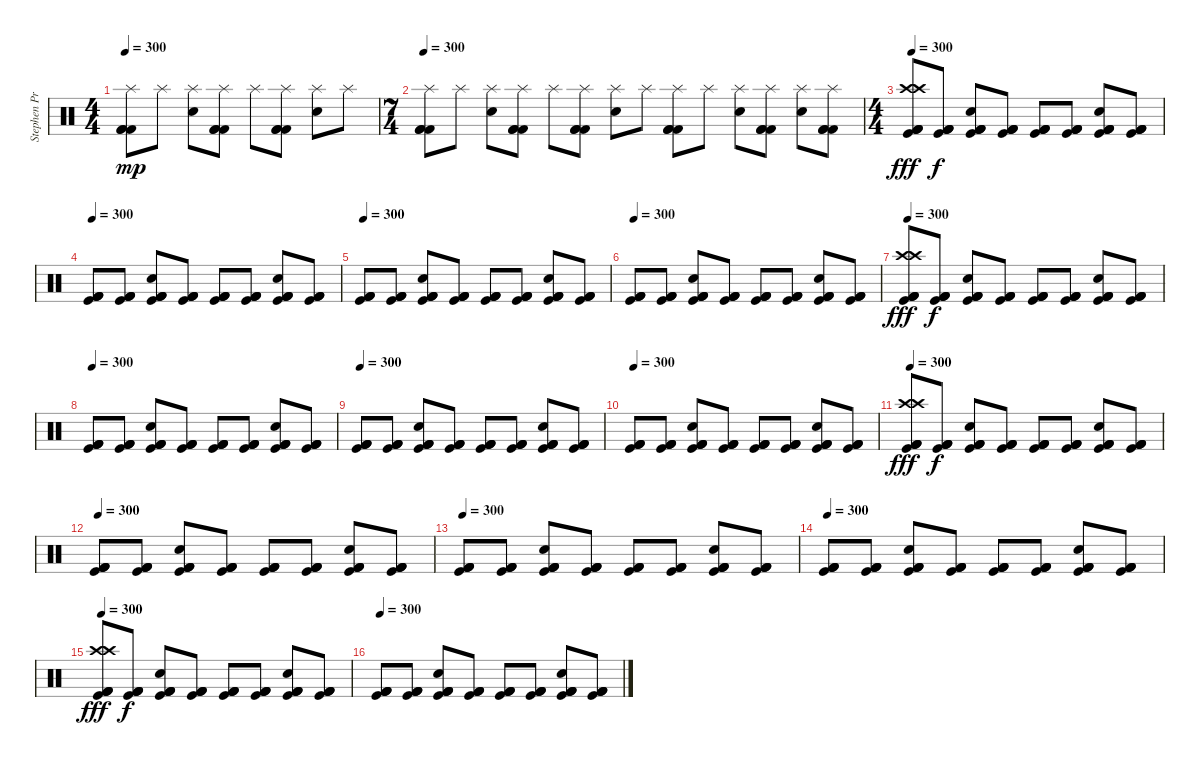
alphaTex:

\track ("Stephen Priestly  (Drums)" "Stephen Pr") {instrument percussion}
\staff {score}
\articulation defaults
\ts (4 4)
\tempo 300
\clef neutral
\ks c
("Splash (hit)" "Kick (hit) 2" "Kick (hit) 2" "Kick (hit) 2").8{dy mp} "Splash (hit)".8 ("Splash (hit)" "Electric Snare (hit)").8 ("Splash (hit)" "Kick (hit) 2" "Kick (hit) 2" "Kick (hit) 2").8 "Splash (hit)".8 ("Splash (hit)" "Kick (hit) 2" "Kick (hit) 2" "Kick (hit) 2").8 ("Splash (hit)" "Electric Snare (hit)").8 "Splash (hit)".8 |
\ts (7 4)
\tempo 300
("Splash (hit)" "Kick (hit) 2" "Kick (hit) 2" "Kick (hit) 2").8 "Splash (hit)".8 ("Splash (hit)" "Electric Snare (hit)").8 ("Splash (hit)" "Kick (hit) 2" "Kick (hit) 2" "Kick (hit) 2").8 "Splash (hit)".8 ("Splash (hit)" "Kick (hit) 2" "Kick (hit) 2" "Kick (hit) 2").8 ("Splash (hit)" "Electric Snare (hit)").8 "Splash (hit)".8 ("Splash (hit)" "Kick (hit) 2" "Kick (hit) 2" "Kick (hit) 2").8 "Splash (hit)".8 ("Splash (hit)" "Electric Snare (hit)").8 ("Splash (hit)" "Kick (hit) 2" "Kick (hit) 2" "Kick (hit) 2").8 ("Splash (hit)" "Electric Snare (hit)").8 ("Splash (hit)" "Kick (hit) 2" "Kick (hit) 2" "Kick (hit) 2").8 |
\ts (4 4)
\tempo 300
("Crash high (hit)" "Crash high (hit)" "Kick (hit)" "Kick (hit) 2" "Kick (hit) 2" "Kick (hit) 2").8{dy fff} ("Kick (hit)" "Kick (hit) 2" "Kick (hit) 2" "Kick (hit) 2").8{dy f} ("Electric Snare (hit)" "Kick (hit)" "Kick (hit) 2" "Kick (hit) 2" "Kick (hit) 2").8 ("Kick (hit)" "Kick (hit) 2" "Kick (hit) 2" "Kick (hit) 2").8 ("Kick (hit)" "Kick (hit) 2" "Kick (hit) 2" "Kick (hit) 2").8 ("Kick (hit)" "Kick (hit) 2" "Kick (hit) 2" "Kick (hit) 2").8 ("Electric Snare (hit)" "Kick (hit)" "Kick (hit) 2" "Kick (hit) 2" "Kick (hit) 2").8 ("Kick (hit)" "Kick (hit) 2" "Kick (hit) 2" "Kick (hit) 2").8 |
\tempo 300
("Kick (hit)" "Kick (hit) 2" "Kick (hit) 2" "Kick (hit) 2").8 ("Kick (hit)" "Kick (hit) 2" "Kick (hit) 2" "Kick (hit) 2").8 ("Electric Snare (hit)" "Kick (hit)" "Kick (hit) 2" "Kick (hit) 2" "Kick (hit) 2").8 ("Kick (hit)" "Kick (hit) 2" "Kick (hit) 2" "Kick (hit) 2").8 ("Kick (hit)" "Kick (hit) 2" "Kick (hit) 2" "Kick (hit) 2").8 ("Kick (hit)" "Kick (hit) 2" "Kick (hit) 2" "Kick (hit) 2").8 ("Electric Snare (hit)" "Kick (hit)" "Kick (hit) 2" "Kick (hit) 2" "Kick (hit) 2").8 ("Kick (hit)" "Kick (hit) 2" "Kick (hit) 2" "Kick (hit) 2").8 |
\tempo 300
("Kick (hit)" "Kick (hit) 2" "Kick (hit) 2" "Kick (hit) 2").8 ("Kick (hit)" "Kick (hit) 2" "Kick (hit) 2" "Kick (hit) 2").8 ("Electric Snare (hit)" "Kick (hit)" "Kick (hit) 2" "Kick (hit) 2" "Kick (hit) 2").8 ("Kick (hit)" "Kick (hit) 2" "Kick (hit) 2" "Kick (hit) 2").8 ("Kick (hit)" "Kick (hit) 2" "Kick (hit) 2" "Kick (hit) 2").8 ("Kick (hit)" "Kick (hit) 2" "Kick (hit) 2" "Kick (hit) 2").8 ("Electric Snare (hit)" "Kick (hit)" "Kick (hit) 2" "Kick (hit) 2" "Kick (hit) 2").8 ("Kick (hit)" "Kick (hit) 2" "Kick (hit) 2" "Kick (hit) 2").8 |
\tempo 300
("Kick (hit)" "Kick (hit) 2" "Kick (hit) 2" "Kick (hit) 2").8 ("Kick (hit)" "Kick (hit) 2" "Kick (hit) 2" "Kick (hit) 2").8 ("Electric Snare (hit)" "Kick (hit)" "Kick (hit) 2" "Kick (hit) 2" "Kick (hit) 2").8 ("Kick (hit)" "Kick (hit) 2" "Kick (hit) 2" "Kick (hit) 2").8 ("Kick (hit)" "Kick (hit) 2" "Kick (hit) 2" "Kick (hit) 2").8 ("Kick (hit)" "Kick (hit) 2" "Kick (hit) 2" "Kick (hit) 2").8 ("Electric Snare (hit)" "Kick (hit)" "Kick (hit) 2" "Kick (hit) 2" "Kick (hit) 2").8 ("Kick (hit)" "Kick (hit) 2" "Kick (hit) 2" "Kick (hit) 2").8 |
\tempo 300
("Crash high (hit)" "Crash high (hit)" "Kick (hit)" "Kick (hit) 2" "Kick (hit) 2" "Kick (hit) 2").8{dy fff} ("Kick (hit)" "Kick (hit) 2" "Kick (hit) 2" "Kick (hit) 2").8{dy f} ("Electric Snare (hit)" "Kick (hit)" "Kick (hit) 2" "Kick (hit) 2" "Kick (hit) 2").8 ("Kick (hit)" "Kick (hit) 2" "Kick (hit) 2" "Kick (hit) 2").8 ("Kick (hit)" "Kick (hit) 2" "Kick (hit) 2" "Kick (hit) 2").8 ("Kick (hit)" "Kick (hit) 2" "Kick (hit) 2" "Kick (hit) 2").8 ("Electric Snare (hit)" "Kick (hit)" "Kick (hit) 2" "Kick (hit) 2" "Kick (hit) 2").8 ("Kick (hit)" "Kick (hit) 2" "Kick (hit) 2" "Kick (hit) 2").8 |
\tempo 300
("Kick (hit)" "Kick (hit) 2" "Kick (hit) 2" "Kick (hit) 2").8 ("Kick (hit)" "Kick (hit) 2" "Kick (hit) 2" "Kick (hit) 2").8 ("Electric Snare (hit)" "Kick (hit)" "Kick (hit) 2" "Kick (hit) 2" "Kick (hit) 2").8 ("Kick (hit)" "Kick (hit) 2" "Kick (hit) 2" "Kick (hit) 2").8 ("Kick (hit)" "Kick (hit) 2" "Kick (hit) 2" "Kick (hit) 2").8 ("Kick (hit)" "Kick (hit) 2" "Kick (hit) 2" "Kick (hit) 2").8 ("Electric Snare (hit)" "Kick (hit)" "Kick (hit) 2" "Kick (hit) 2" "Kick (hit) 2").8 ("Kick (hit)" "Kick (hit) 2" "Kick (hit) 2" "Kick (hit) 2").8 |
\tempo 300
("Kick (hit)" "Kick (hit) 2" "Kick (hit) 2" "Kick (hit) 2").8 ("Kick (hit)" "Kick (hit) 2" "Kick (hit) 2" "Kick (hit) 2").8 ("Electric Snare (hit)" "Kick (hit)" "Kick (hit) 2" "Kick (hit) 2" "Kick (hit) 2").8 ("Kick (hit)" "Kick (hit) 2" "Kick (hit) 2" "Kick (hit) 2").8 ("Kick (hit)" "Kick (hit) 2" "Kick (hit) 2" "Kick (hit) 2").8 ("Kick (hit)" "Kick (hit) 2" "Kick (hit) 2" "Kick (hit) 2").8 ("Electric Snare (hit)" "Kick (hit)" "Kick (hit) 2" "Kick (hit) 2" "Kick (hit) 2").8 ("Kick (hit)" "Kick (hit) 2" "Kick (hit) 2" "Kick (hit) 2").8 |
\tempo 300
("Kick (hit)" "Kick (hit) 2" "Kick (hit) 2" "Kick (hit) 2").8 ("Kick (hit)" "Kick (hit) 2" "Kick (hit) 2" "Kick (hit) 2").8 ("Electric Snare (hit)" "Kick (hit)" "Kick (hit) 2" "Kick (hit) 2" "Kick (hit) 2").8 ("Kick (hit)" "Kick (hit) 2" "Kick (hit) 2" "Kick (hit) 2").8 ("Kick (hit)" "Kick (hit) 2" "Kick (hit) 2" "Kick (hit) 2").8 ("Kick (hit)" "Kick (hit) 2" "Kick (hit) 2" "Kick (hit) 2").8 ("Electric Snare (hit)" "Kick (hit)" "Kick (hit) 2" "Kick (hit) 2" "Kick (hit) 2").8 ("Kick (hit)" "Kick (hit) 2" "Kick (hit) 2" "Kick (hit) 2").8 |
\tempo 300
("Crash high (hit)" "Crash high (hit)" "Kick (hit)" "Kick (hit) 2" "Kick (hit) 2" "Kick (hit) 2").8{dy fff} ("Kick (hit)" "Kick (hit) 2" "Kick (hit) 2" "Kick (hit) 2").8{dy f} ("Electric Snare (hit)" "Kick (hit)" "Kick (hit) 2" "Kick (hit) 2" "Kick (hit) 2").8 ("Kick (hit)" "Kick (hit) 2" "Kick (hit) 2" "Kick (hit) 2").8 ("Kick (hit)" "Kick (hit) 2" "Kick (hit) 2" "Kick (hit) 2").8 ("Kick (hit)" "Kick (hit) 2" "Kick (hit) 2" "Kick (hit) 2").8 ("Electric Snare (hit)" "Kick (hit)" "Kick (hit) 2" "Kick (hit) 2" "Kick (hit) 2").8 ("Kick (hit)" "Kick (hit) 2" "Kick (hit) 2" "Kick (hit) 2").8 |
\tempo 300
("Kick (hit)" "Kick (hit) 2" "Kick (hit) 2" "Kick (hit) 2").8 ("Kick (hit)" "Kick (hit) 2" "Kick (hit) 2" "Kick (hit) 2").8 ("Electric Snare (hit)" "Kick (hit)" "Kick (hit) 2" "Kick (hit) 2" "Kick (hit) 2").8 ("Kick (hit)" "Kick (hit) 2" "Kick (hit) 2" "Kick (hit) 2").8 ("Kick (hit)" "Kick (hit) 2" "Kick (hit) 2" "Kick (hit) 2").8 ("Kick (hit)" "Kick (hit) 2" "Kick (hit) 2" "Kick (hit) 2").8 ("Electric Snare (hit)" "Kick (hit)" "Kick (hit) 2" "Kick (hit) 2" "Kick (hit) 2").8 ("Kick (hit)" "Kick (hit) 2" "Kick (hit) 2" "Kick (hit) 2").8 |
\tempo 300
("Kick (hit)" "Kick (hit) 2" "Kick (hit) 2" "Kick (hit) 2").8 ("Kick (hit)" "Kick (hit) 2" "Kick (hit) 2" "Kick (hit) 2").8 ("Electric Snare (hit)" "Kick (hit)" "Kick (hit) 2" "Kick (hit) 2" "Kick (hit) 2").8 ("Kick (hit)" "Kick (hit) 2" "Kick (hit) 2" "Kick (hit) 2").8 ("Kick (hit)" "Kick (hit) 2" "Kick (hit) 2" "Kick (hit) 2").8 ("Kick (hit)" "Kick (hit) 2" "Kick (hit) 2" "Kick (hit) 2").8 ("Electric Snare (hit)" "Kick (hit)" "Kick (hit) 2" "Kick (hit) 2" "Kick (hit) 2").8 ("Kick (hit)" "Kick (hit) 2" "Kick (hit) 2" "Kick (hit) 2").8 |
\tempo 300
("Kick (hit)" "Kick (hit) 2" "Kick (hit) 2" "Kick (hit) 2").8 ("Kick (hit)" "Kick (hit) 2" "Kick (hit) 2" "Kick (hit) 2").8 ("Electric Snare (hit)" "Kick (hit)" "Kick (hit) 2" "Kick (hit) 2" "Kick (hit) 2").8 ("Kick (hit)" "Kick (hit) 2" "Kick (hit) 2" "Kick (hit) 2").8 ("Kick (hit)" "Kick (hit) 2" "Kick (hit) 2" "Kick (hit) 2").8 ("Kick (hit)" "Kick (hit) 2" "Kick (hit) 2" "Kick (hit) 2").8 ("Electric Snare (hit)" "Kick (hit)" "Kick (hit) 2" "Kick (hit) 2" "Kick (hit) 2").8 ("Kick (hit)" "Kick (hit) 2" "Kick (hit) 2" "Kick (hit) 2").8 |
\tempo 300
("Crash high (hit)" "Crash high (hit)" "Kick (hit)" "Kick (hit) 2" "Kick (hit) 2" "Kick (hit) 2").8{dy fff} ("Kick (hit)" "Kick (hit) 2" "Kick (hit) 2" "Kick (hit) 2").8{dy f} ("Electric Snare (hit)" "Kick (hit)" "Kick (hit) 2" "Kick (hit) 2" "Kick (hit) 2").8 ("Kick (hit)" "Kick (hit) 2" "Kick (hit) 2" "Kick (hit) 2").8 ("Kick (hit)" "Kick (hit) 2" "Kick (hit) 2" "Kick (hit) 2").8 ("Kick (hit)" "Kick (hit) 2" "Kick (hit) 2" "Kick (hit) 2").8 ("Electric Snare (hit)" "Kick (hit)" "Kick (hit) 2" "Kick (hit) 2" "Kick (hit) 2").8 ("Kick (hit)" "Kick (hit) 2" "Kick (hit) 2" "Kick (hit) 2").8 |
\tempo 300
("Kick (hit)" "Kick (hit) 2" "Kick (hit) 2" "Kick (hit) 2").8 ("Kick (hit)" "Kick (hit) 2" "Kick (hit) 2" "Kick (hit) 2").8 ("Electric Snare (hit)" "Kick (hit)" "Kick (hit) 2" "Kick (hit) 2" "Kick (hit) 2").8 ("Kick (hit)" "Kick (hit) 2" "Kick (hit) 2" "Kick (hit) 2").8 ("Kick (hit)" "Kick (hit) 2" "Kick (hit) 2" "Kick (hit) 2").8 ("Kick (hit)" "Kick (hit) 2" "Kick (hit) 2" "Kick (hit) 2").8 ("Electric Snare (hit)" "Kick (hit)" "Kick (hit) 2" "Kick (hit) 2" "Kick (hit) 2").8 ("Kick (hit)" "Kick (hit) 2" "Kick (hit) 2" "Kick (hit) 2").8
